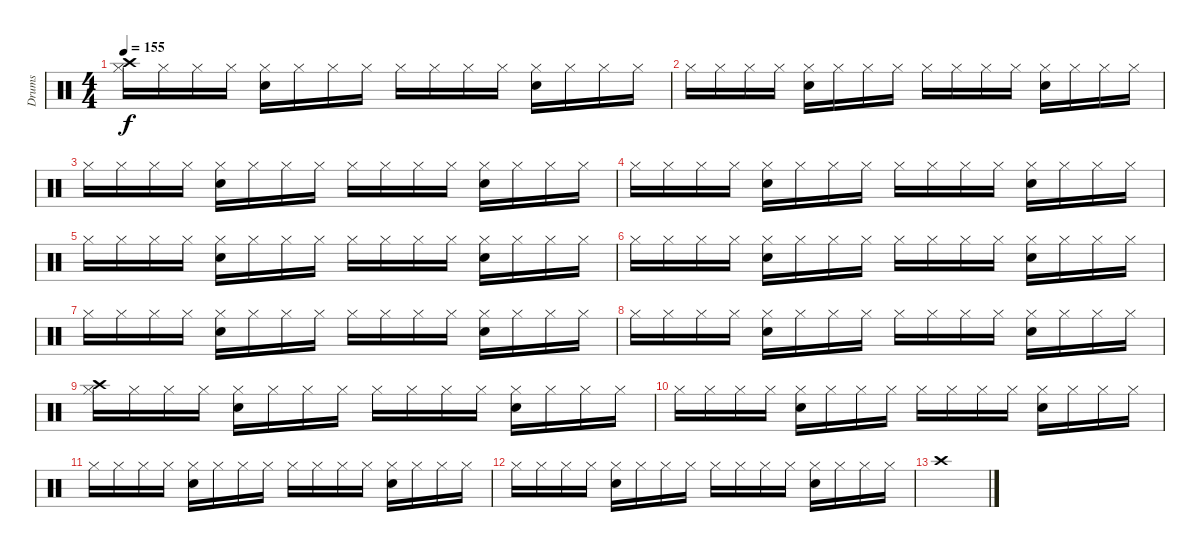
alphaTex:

\track ("Drums" "Drums") {instrument percussion}
\staff {score}
\articulation defaults
\ts (4 4)
\tempo 155
\clef neutral
\ks c
("Hi-Hat (closed)" "Crash high (hit)").16{dy f} "Hi-Hat (closed)".16 "Hi-Hat (closed)".16 "Hi-Hat (closed)".16 ("Hi-Hat (closed)" "Electric Snare (hit)").16 "Hi-Hat (closed)".16 "Hi-Hat (closed)".16 "Hi-Hat (closed)".16 "Hi-Hat (closed)".16 "Hi-Hat (closed)".16 "Hi-Hat (closed)".16 "Hi-Hat (closed)".16 ("Hi-Hat (closed)" "Electric Snare (hit)").16 "Hi-Hat (closed)".16 "Hi-Hat (closed)".16 "Hi-Hat (closed)".16 |
"Hi-Hat (closed)".16 "Hi-Hat (closed)".16 "Hi-Hat (closed)".16 "Hi-Hat (closed)".16 ("Hi-Hat (closed)" "Electric Snare (hit)").16 "Hi-Hat (closed)".16 "Hi-Hat (closed)".16 "Hi-Hat (closed)".16 "Hi-Hat (closed)".16 "Hi-Hat (closed)".16 "Hi-Hat (closed)".16 "Hi-Hat (closed)".16 ("Hi-Hat (closed)" "Electric Snare (hit)").16 "Hi-Hat (closed)".16 "Hi-Hat (closed)".16 "Hi-Hat (closed)".16 |
"Hi-Hat (closed)".16 "Hi-Hat (closed)".16 "Hi-Hat (closed)".16 "Hi-Hat (closed)".16 ("Hi-Hat (closed)" "Electric Snare (hit)").16 "Hi-Hat (closed)".16 "Hi-Hat (closed)".16 "Hi-Hat (closed)".16 "Hi-Hat (closed)".16 "Hi-Hat (closed)".16 "Hi-Hat (closed)".16 "Hi-Hat (closed)".16 ("Hi-Hat (closed)" "Electric Snare (hit)").16 "Hi-Hat (closed)".16 "Hi-Hat (closed)".16 "Hi-Hat (closed)".16 |
"Hi-Hat (closed)".16 "Hi-Hat (closed)".16 "Hi-Hat (closed)".16 "Hi-Hat (closed)".16 ("Hi-Hat (closed)" "Electric Snare (hit)").16 "Hi-Hat (closed)".16 "Hi-Hat (closed)".16 "Hi-Hat (closed)".16 "Hi-Hat (closed)".16 "Hi-Hat (closed)".16 "Hi-Hat (closed)".16 "Hi-Hat (closed)".16 ("Hi-Hat (closed)" "Electric Snare (hit)").16 "Hi-Hat (closed)".16 "Hi-Hat (closed)".16 "Hi-Hat (closed)".16 |
"Hi-Hat (closed)".16 "Hi-Hat (closed)".16 "Hi-Hat (closed)".16 "Hi-Hat (closed)".16 ("Hi-Hat (closed)" "Electric Snare (hit)").16 "Hi-Hat (closed)".16 "Hi-Hat (closed)".16 "Hi-Hat (closed)".16 "Hi-Hat (closed)".16 "Hi-Hat (closed)".16 "Hi-Hat (closed)".16 "Hi-Hat (closed)".16 ("Hi-Hat (closed)" "Electric Snare (hit)").16 "Hi-Hat (closed)".16 "Hi-Hat (closed)".16 "Hi-Hat (closed)".16 |
"Hi-Hat (closed)".16 "Hi-Hat (closed)".16 "Hi-Hat (closed)".16 "Hi-Hat (closed)".16 ("Hi-Hat (closed)" "Electric Snare (hit)").16 "Hi-Hat (closed)".16 "Hi-Hat (closed)".16 "Hi-Hat (closed)".16 "Hi-Hat (closed)".16 "Hi-Hat (closed)".16 "Hi-Hat (closed)".16 "Hi-Hat (closed)".16 ("Hi-Hat (closed)" "Electric Snare (hit)").16 "Hi-Hat (closed)".16 "Hi-Hat (closed)".16 "Hi-Hat (closed)".16 |
"Hi-Hat (closed)".16 "Hi-Hat (closed)".16 "Hi-Hat (closed)".16 "Hi-Hat (closed)".16 ("Hi-Hat (closed)" "Electric Snare (hit)").16 "Hi-Hat (closed)".16 "Hi-Hat (closed)".16 "Hi-Hat (closed)".16 "Hi-Hat (closed)".16 "Hi-Hat (closed)".16 "Hi-Hat (closed)".16 "Hi-Hat (closed)".16 ("Hi-Hat (closed)" "Electric Snare (hit)").16 "Hi-Hat (closed)".16 "Hi-Hat (closed)".16 "Hi-Hat (closed)".16 |
"Hi-Hat (closed)".16 "Hi-Hat (closed)".16 "Hi-Hat (closed)".16 "Hi-Hat (closed)".16 ("Hi-Hat (closed)" "Electric Snare (hit)").16 "Hi-Hat (closed)".16 "Hi-Hat (closed)".16 "Hi-Hat (closed)".16 "Hi-Hat (closed)".16 "Hi-Hat (closed)".16 "Hi-Hat (closed)".16 "Hi-Hat (closed)".16 ("Hi-Hat (closed)" "Electric Snare (hit)").16 "Hi-Hat (closed)".16 "Hi-Hat (closed)".16 "Hi-Hat (closed)".16 |
("Hi-Hat (closed)" "Crash high (hit)").16 "Hi-Hat (closed)".16 "Hi-Hat (closed)".16 "Hi-Hat (closed)".16 ("Hi-Hat (closed)" "Electric Snare (hit)").16 "Hi-Hat (closed)".16 "Hi-Hat (closed)".16 "Hi-Hat (closed)".16 "Hi-Hat (closed)".16 "Hi-Hat (closed)".16 "Hi-Hat (closed)".16 "Hi-Hat (closed)".16 ("Hi-Hat (closed)" "Electric Snare (hit)").16 "Hi-Hat (closed)".16 "Hi-Hat (closed)".16 "Hi-Hat (closed)".16 |
"Hi-Hat (closed)".16 "Hi-Hat (closed)".16 "Hi-Hat (closed)".16 "Hi-Hat (closed)".16 ("Hi-Hat (closed)" "Electric Snare (hit)").16 "Hi-Hat (closed)".16 "Hi-Hat (closed)".16 "Hi-Hat (closed)".16 "Hi-Hat (closed)".16 "Hi-Hat (closed)".16 "Hi-Hat (closed)".16 "Hi-Hat (closed)".16 ("Hi-Hat (closed)" "Electric Snare (hit)").16 "Hi-Hat (closed)".16 "Hi-Hat (closed)".16 "Hi-Hat (closed)".16 |
"Hi-Hat (closed)".16 "Hi-Hat (closed)".16 "Hi-Hat (closed)".16 "Hi-Hat (closed)".16 ("Hi-Hat (closed)" "Electric Snare (hit)").16 "Hi-Hat (closed)".16 "Hi-Hat (closed)".16 "Hi-Hat (closed)".16 "Hi-Hat (closed)".16 "Hi-Hat (closed)".16 "Hi-Hat (closed)".16 "Hi-Hat (closed)".16 ("Hi-Hat (closed)" "Electric Snare (hit)").16 "Hi-Hat (closed)".16 "Hi-Hat (closed)".16 "Hi-Hat (closed)".16 |
"Hi-Hat (closed)".16 "Hi-Hat (closed)".16 "Hi-Hat (closed)".16 "Hi-Hat (closed)".16 ("Hi-Hat (closed)" "Electric Snare (hit)").16 "Hi-Hat (closed)".16 "Hi-Hat (closed)".16 "Hi-Hat (closed)".16 "Hi-Hat (closed)".16 "Hi-Hat (closed)".16 "Hi-Hat (closed)".16 "Hi-Hat (closed)".16 ("Hi-Hat (closed)" "Electric Snare (hit)").16 "Hi-Hat (closed)".16 "Hi-Hat (closed)".16 "Hi-Hat (closed)".16 |
"Crash high (hit)".1
